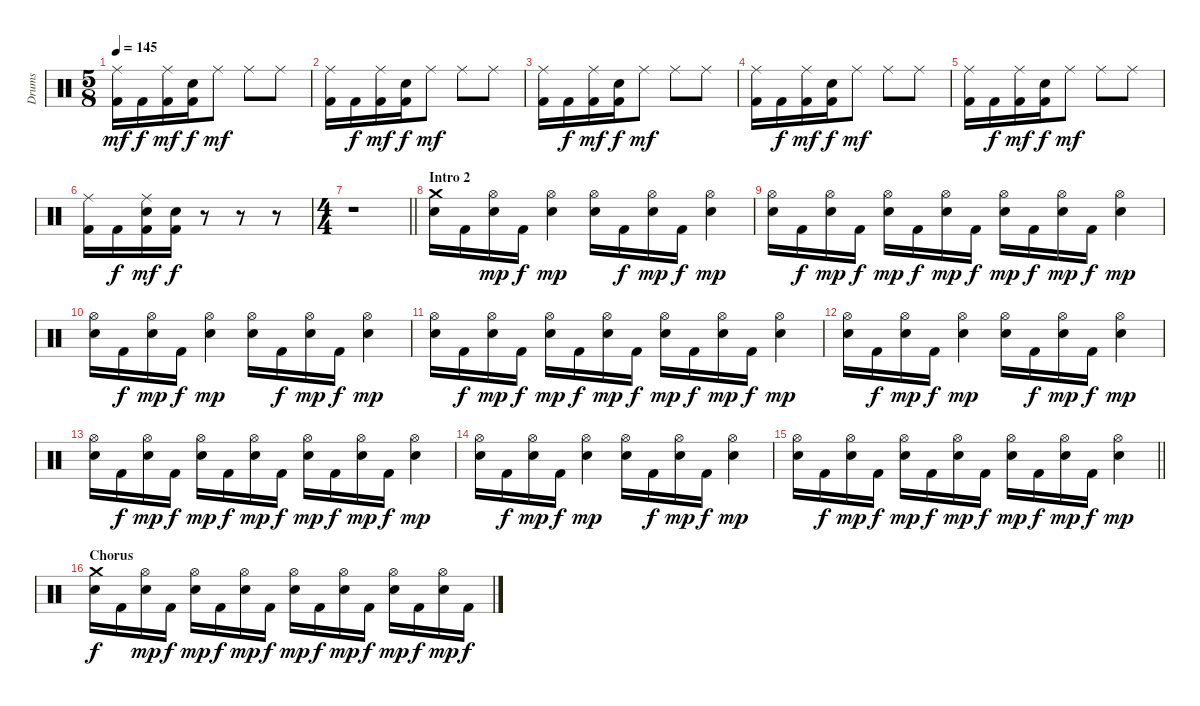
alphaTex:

\track ("Drums" "Drums") {instrument percussion}
\staff {score}
\articulation defaults
\ts (5 8)
\tempo 145
\clef neutral
\ks c
("Ride (middle)" "Kick (hit) 2").16{dy mf} "Kick (hit) 2".16{dy f} ("Ride (middle)" "Kick (hit) 2").16{dy mf} ("Snare (hit) 2" "Kick (hit) 2").16{dy f} "Ride (middle)".8{dy mf} "Ride (middle)".8 "Ride (middle)".8 |
("Ride (middle)" "Kick (hit) 2").16 "Kick (hit) 2".16{dy f} ("Ride (middle)" "Kick (hit) 2").16{dy mf} ("Snare (hit) 2" "Kick (hit) 2").16{dy f} "Ride (middle)".8{dy mf} "Ride (middle)".8 "Ride (middle)".8 |
("Ride (middle)" "Kick (hit) 2").16 "Kick (hit) 2".16{dy f} ("Ride (middle)" "Kick (hit) 2").16{dy mf} ("Snare (hit) 2" "Kick (hit) 2").16{dy f} "Ride (middle)".8{dy mf} "Ride (middle)".8 "Ride (middle)".8 |
("Ride (middle)" "Kick (hit) 2").16 "Kick (hit) 2".16{dy f} ("Ride (middle)" "Kick (hit) 2").16{dy mf} ("Snare (hit) 2" "Kick (hit) 2").16{dy f} "Ride (middle)".8{dy mf} "Ride (middle)".8 "Ride (middle)".8 |
("Ride (middle)" "Kick (hit) 2").16 "Kick (hit) 2".16{dy f} ("Ride (middle)" "Kick (hit) 2").16{dy mf} ("Snare (hit) 2" "Kick (hit) 2").16{dy f} "Ride (middle)".8{dy mf} "Ride (middle)".8 "Ride (middle)".8 |
("Ride (middle)" "Kick (hit) 2").16 "Kick (hit) 2".16{dy f} ("Ride (middle)" "Snare (hit) 2" "Kick (hit) 2").16{dy mf} ("Snare (hit) 2" "Kick (hit) 2").16{dy f} r.8 r.8 r.8 |
\ts (4 4)
\barLineRight lightlight
r.1 |
\section ("" "Intro 2")
("Crash medium (hit)" "Snare (hit) 2").16 "Kick (hit) 2".16 ("Hi-Hat (open)" "Snare (hit) 2").16{dy mp} "Kick (hit) 2".16{dy f} ("Hi-Hat (open)" "Snare (hit) 2").4{dy mp} ("Hi-Hat (open)" "Snare (hit) 2").16 "Kick (hit) 2".16{dy f} ("Hi-Hat (open)" "Snare (hit) 2").16{dy mp} "Kick (hit) 2".16{dy f} ("Hi-Hat (open)" "Snare (hit) 2").4{dy mp} |
("Hi-Hat (open)" "Snare (hit) 2").16 "Kick (hit) 2".16{dy f} ("Hi-Hat (open)" "Snare (hit) 2").16{dy mp} "Kick (hit) 2".16{dy f} ("Hi-Hat (open)" "Snare (hit) 2").16{dy mp} "Kick (hit) 2".16{dy f} ("Hi-Hat (open)" "Snare (hit) 2").16{dy mp} "Kick (hit) 2".16{dy f} ("Hi-Hat (open)" "Snare (hit) 2").16{dy mp} "Kick (hit) 2".16{dy f} ("Hi-Hat (open)" "Snare (hit) 2").16{dy mp} "Kick (hit) 2".16{dy f} ("Hi-Hat (open)" "Snare (hit) 2").4{dy mp} |
("Hi-Hat (open)" "Snare (hit) 2").16 "Kick (hit) 2".16{dy f} ("Hi-Hat (open)" "Snare (hit) 2").16{dy mp} "Kick (hit) 2".16{dy f} ("Hi-Hat (open)" "Snare (hit) 2").4{dy mp} ("Hi-Hat (open)" "Snare (hit) 2").16 "Kick (hit) 2".16{dy f} ("Hi-Hat (open)" "Snare (hit) 2").16{dy mp} "Kick (hit) 2".16{dy f} ("Hi-Hat (open)" "Snare (hit) 2").4{dy mp} |
("Hi-Hat (open)" "Snare (hit) 2").16 "Kick (hit) 2".16{dy f} ("Hi-Hat (open)" "Snare (hit) 2").16{dy mp} "Kick (hit) 2".16{dy f} ("Hi-Hat (open)" "Snare (hit) 2").16{dy mp} "Kick (hit) 2".16{dy f} ("Hi-Hat (open)" "Snare (hit) 2").16{dy mp} "Kick (hit) 2".16{dy f} ("Hi-Hat (open)" "Snare (hit) 2").16{dy mp} "Kick (hit) 2".16{dy f} ("Hi-Hat (open)" "Snare (hit) 2").16{dy mp} "Kick (hit) 2".16{dy f} ("Hi-Hat (open)" "Snare (hit) 2").4{dy mp} |
("Hi-Hat (open)" "Snare (hit) 2").16 "Kick (hit) 2".16{dy f} ("Hi-Hat (open)" "Snare (hit) 2").16{dy mp} "Kick (hit) 2".16{dy f} ("Hi-Hat (open)" "Snare (hit) 2").4{dy mp} ("Hi-Hat (open)" "Snare (hit) 2").16 "Kick (hit) 2".16{dy f} ("Hi-Hat (open)" "Snare (hit) 2").16{dy mp} "Kick (hit) 2".16{dy f} ("Hi-Hat (open)" "Snare (hit) 2").4{dy mp} |
("Hi-Hat (open)" "Snare (hit) 2").16 "Kick (hit) 2".16{dy f} ("Hi-Hat (open)" "Snare (hit) 2").16{dy mp} "Kick (hit) 2".16{dy f} ("Hi-Hat (open)" "Snare (hit) 2").16{dy mp} "Kick (hit) 2".16{dy f} ("Hi-Hat (open)" "Snare (hit) 2").16{dy mp} "Kick (hit) 2".16{dy f} ("Hi-Hat (open)" "Snare (hit) 2").16{dy mp} "Kick (hit) 2".16{dy f} ("Hi-Hat (open)" "Snare (hit) 2").16{dy mp} "Kick (hit) 2".16{dy f} ("Hi-Hat (open)" "Snare (hit) 2").4{dy mp} |
("Hi-Hat (open)" "Snare (hit) 2").16 "Kick (hit) 2".16{dy f} ("Hi-Hat (open)" "Snare (hit) 2").16{dy mp} "Kick (hit) 2".16{dy f} ("Hi-Hat (open)" "Snare (hit) 2").4{dy mp} ("Hi-Hat (open)" "Snare (hit) 2").16 "Kick (hit) 2".16{dy f} ("Hi-Hat (open)" "Snare (hit) 2").16{dy mp} "Kick (hit) 2".16{dy f} ("Hi-Hat (open)" "Snare (hit) 2").4{dy mp} |
\barLineRight lightlight
("Hi-Hat (open)" "Snare (hit) 2").16 "Kick (hit) 2".16{dy f} ("Hi-Hat (open)" "Snare (hit) 2").16{dy mp} "Kick (hit) 2".16{dy f} ("Hi-Hat (open)" "Snare (hit) 2").16{dy mp} "Kick (hit) 2".16{dy f} ("Hi-Hat (open)" "Snare (hit) 2").16{dy mp} "Kick (hit) 2".16{dy f} ("Hi-Hat (open)" "Snare (hit) 2").16{dy mp} "Kick (hit) 2".16{dy f} ("Hi-Hat (open)" "Snare (hit) 2").16{dy mp} "Kick (hit) 2".16{dy f} ("Hi-Hat (open)" "Snare (hit) 2").4{dy mp} |
\section ("" "Chorus")
("Crash medium (hit)" "Snare (hit) 2").16{dy f} "Kick (hit) 2".16 ("Hi-Hat (open)" "Snare (hit) 2").16{dy mp} "Kick (hit) 2".16{dy f} ("Hi-Hat (open)" "Snare (hit) 2").16{dy mp} "Kick (hit) 2".16{dy f} ("Hi-Hat (open)" "Snare (hit) 2").16{dy mp} "Kick (hit) 2".16{dy f} ("Hi-Hat (open)" "Snare (hit) 2").16{dy mp} "Kick (hit) 2".16{dy f} ("Hi-Hat (open)" "Snare (hit) 2").16{dy mp} "Kick (hit) 2".16{dy f} ("Hi-Hat (open)" "Snare (hit) 2").16{dy mp} "Kick (hit) 2".16{dy f} ("Hi-Hat (open)" "Snare (hit) 2").16{dy mp} "Kick (hit) 2".16{dy f}
